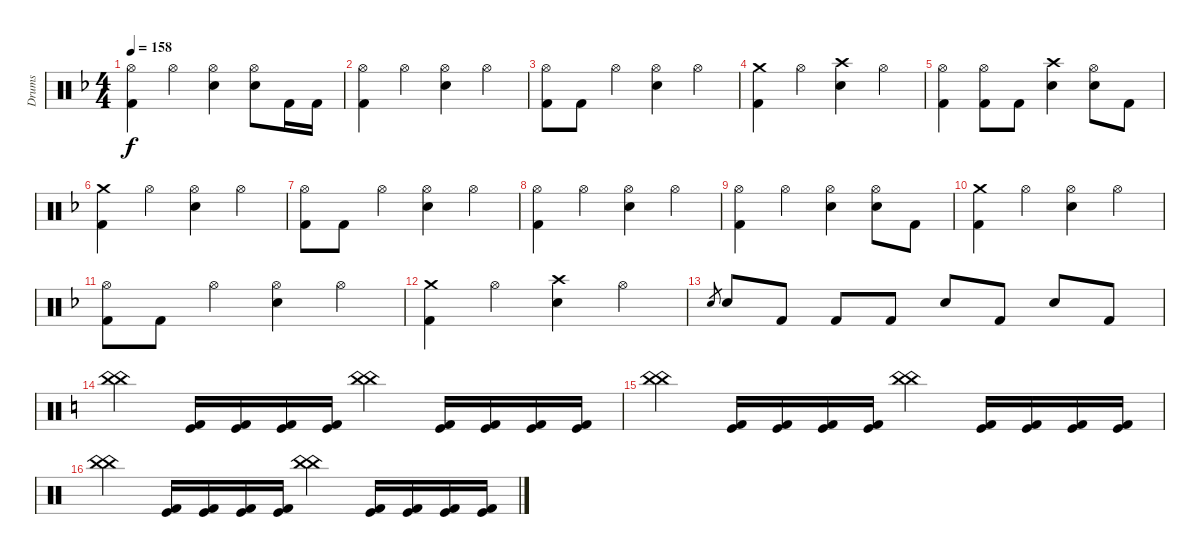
\track ("Drums" "Drums") {instrument percussion}
\staff {score}
\articulation defaults
\ts (4 4)
\tempo 158
\clef neutral
\ks f
("Hi-Hat (open)" "Kick (hit) 2").4{dy f} "Hi-Hat (open)".4 ("Hi-Hat (open)" "Snare (hit) 2").4 ("Hi-Hat (open)" "Snare (hit) 2").8 "Kick (hit) 2".16 "Kick (hit) 2".16 |
("Hi-Hat (open)" "Kick (hit) 2").4 "Hi-Hat (open)".4 ("Hi-Hat (open)" "Snare (hit) 2").4 "Hi-Hat (open)".4 |
("Hi-Hat (open)" "Kick (hit) 2").8 "Kick (hit) 2".8 "Hi-Hat (open)".4 ("Hi-Hat (open)" "Snare (hit) 2").4 "Hi-Hat (open)".4 |
("Crash medium (hit)" "Kick (hit) 2").4 "Hi-Hat (open)".4 ("Crash high (hit)" "Snare (hit) 2").4 "Hi-Hat (open)".4 |
("Hi-Hat (open)" "Kick (hit) 2").4 ("Hi-Hat (open)" "Kick (hit) 2").8 "Kick (hit) 2".8 ("Crash high (hit)" "Snare (hit) 2").4 ("Hi-Hat (open)" "Snare (hit) 2").8 "Kick (hit) 2".8 |
("Crash medium (hit)" "Kick (hit) 2").4 "Hi-Hat (open)".4 ("Hi-Hat (open)" "Snare (hit) 2").4 "Hi-Hat (open)".4 |
("Hi-Hat (open)" "Kick (hit) 2").8 "Kick (hit) 2".8 "Hi-Hat (open)".4 ("Hi-Hat (open)" "Snare (hit) 2").4 "Hi-Hat (open)".4 |
("Hi-Hat (open)" "Kick (hit) 2").4 "Hi-Hat (open)".4 ("Hi-Hat (open)" "Snare (hit) 2").4 "Hi-Hat (open)".4 |
("Hi-Hat (open)" "Kick (hit) 2").4 "Hi-Hat (open)".4 ("Hi-Hat (open)" "Snare (hit) 2").4 ("Hi-Hat (open)" "Snare (hit) 2").8 "Kick (hit) 2".8 |
("Crash medium (hit)" "Kick (hit) 2").4 "Hi-Hat (open)".4 ("Hi-Hat (open)" "Snare (hit) 2").4 "Hi-Hat (open)".4 |
("Hi-Hat (open)" "Kick (hit) 2").8 "Kick (hit) 2".8 "Hi-Hat (open)".4 ("Hi-Hat (open)" "Snare (hit) 2").4 "Hi-Hat (open)".4 |
("Crash medium (hit)" "Kick (hit) 2").4 "Hi-Hat (open)".4 ("Crash high (hit)" "Snare (hit) 2").4 "Hi-Hat (open)".4 |
"Snare (hit) 2".8{gr} "Snare (hit) 2".8 "Kick (hit) 2".8 "Kick (hit) 2".8 "Kick (hit) 2".8 "Snare (hit) 2".8 "Kick (hit) 2".8 "Snare (hit) 2".8 "Kick (hit) 2".8 |
\ks c
("China (hit)" "China (hit)").4 ("Kick (hit)" "Kick (hit) 2").16 ("Kick (hit)" "Kick (hit) 2").16 ("Kick (hit)" "Kick (hit) 2").16 ("Kick (hit)" "Kick (hit) 2").16 ("China (hit)" "China (hit)").4 ("Kick (hit)" "Kick (hit) 2").16 ("Kick (hit)" "Kick (hit) 2").16 ("Kick (hit)" "Kick (hit) 2").16 ("Kick (hit)" "Kick (hit) 2").16 |
("China (hit)" "China (hit)").4 ("Kick (hit)" "Kick (hit) 2").16 ("Kick (hit)" "Kick (hit) 2").16 ("Kick (hit)" "Kick (hit) 2").16 ("Kick (hit)" "Kick (hit) 2").16 ("China (hit)" "China (hit)").4 ("Kick (hit)" "Kick (hit) 2").16 ("Kick (hit)" "Kick (hit) 2").16 ("Kick (hit)" "Kick (hit) 2").16 ("Kick (hit)" "Kick (hit) 2").16 |
("China (hit)" "China (hit)").4 ("Kick (hit)" "Kick (hit) 2").16 ("Kick (hit)" "Kick (hit) 2").16 ("Kick (hit)" "Kick (hit) 2").16 ("Kick (hit)" "Kick (hit) 2").16 ("China (hit)" "China (hit)").4 ("Kick (hit)" "Kick (hit) 2").16 ("Kick (hit)" "Kick (hit) 2").16 ("Kick (hit)" "Kick (hit) 2").16 ("Kick (hit)" "Kick (hit) 2").16
